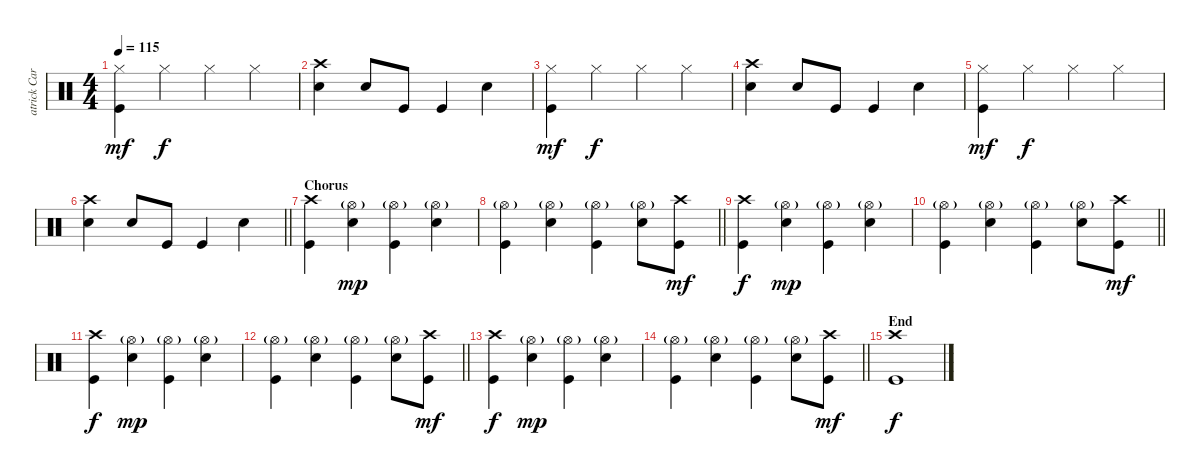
\track ("atrick Carney - Percussion" "atrick Car") {instrument percussion}
\staff {score}
\articulation defaults
\ts (4 4)
\tempo 115
\clef neutral
\ks c
("Hi-Hat (closed)" "Kick (hit)").4{dy mf} "Hi-Hat (closed)".4{dy f} "Hi-Hat (closed)".4 "Hi-Hat (closed)".4 |
("Crash high (hit)" "Electric Snare (hit)").4 "Electric Snare (hit)".8 "Kick (hit)".8 "Kick (hit)".4 "Electric Snare (hit)".4 |
("Hi-Hat (closed)" "Kick (hit)").4{dy mf} "Hi-Hat (closed)".4{dy f} "Hi-Hat (closed)".4 "Hi-Hat (closed)".4 |
("Crash high (hit)" "Electric Snare (hit)").4 "Electric Snare (hit)".8 "Kick (hit)".8 "Kick (hit)".4 "Electric Snare (hit)".4 |
("Hi-Hat (closed)" "Kick (hit)").4{dy mf} "Hi-Hat (closed)".4{dy f} "Hi-Hat (closed)".4 "Hi-Hat (closed)".4 |
\barLineRight lightlight
("Crash high (hit)" "Electric Snare (hit)").4 "Electric Snare (hit)".8 "Kick (hit)".8 "Kick (hit)".4 "Electric Snare (hit)".4 |
\section ("" "Chorus")
("Crash high (hit)" "Kick (hit)").4 ("Hi-Hat (open)"{g} "Electric Snare (hit)").4{dy mp} ("Hi-Hat (open)"{g} "Kick (hit)").4 ("Hi-Hat (open)"{g} "Electric Snare (hit)").4 |
\barLineRight lightlight
("Hi-Hat (open)"{g} "Kick (hit)").4 ("Hi-Hat (open)"{g} "Electric Snare (hit)").4 ("Hi-Hat (open)"{g} "Kick (hit)").4 ("Hi-Hat (open)"{g} "Electric Snare (hit)").8 ("Crash high (hit)" "Kick (hit)").8{dy mf} |
("Crash high (hit)" "Kick (hit)").4{dy f} ("Hi-Hat (open)"{g} "Electric Snare (hit)").4{dy mp} ("Hi-Hat (open)"{g} "Kick (hit)").4 ("Hi-Hat (open)"{g} "Electric Snare (hit)").4 |
\barLineRight lightlight
("Hi-Hat (open)"{g} "Kick (hit)").4 ("Hi-Hat (open)"{g} "Electric Snare (hit)").4 ("Hi-Hat (open)"{g} "Kick (hit)").4 ("Hi-Hat (open)"{g} "Electric Snare (hit)").8 ("Crash high (hit)" "Kick (hit)").8{dy mf} |
("Crash high (hit)" "Kick (hit)").4{dy f} ("Hi-Hat (open)"{g} "Electric Snare (hit)").4{dy mp} ("Hi-Hat (open)"{g} "Kick (hit)").4 ("Hi-Hat (open)"{g} "Electric Snare (hit)").4 |
\barLineRight lightlight
("Hi-Hat (open)"{g} "Kick (hit)").4 ("Hi-Hat (open)"{g} "Electric Snare (hit)").4 ("Hi-Hat (open)"{g} "Kick (hit)").4 ("Hi-Hat (open)"{g} "Electric Snare (hit)").8 ("Crash high (hit)" "Kick (hit)").8{dy mf} |
("Crash high (hit)" "Kick (hit)").4{dy f} ("Hi-Hat (open)"{g} "Electric Snare (hit)").4{dy mp} ("Hi-Hat (open)"{g} "Kick (hit)").4 ("Hi-Hat (open)"{g} "Electric Snare (hit)").4 |
\barLineRight lightlight
("Hi-Hat (open)"{g} "Kick (hit)").4 ("Hi-Hat (open)"{g} "Electric Snare (hit)").4 ("Hi-Hat (open)"{g} "Kick (hit)").4 ("Hi-Hat (open)"{g} "Electric Snare (hit)").8 ("Crash high (hit)" "Kick (hit)").8{dy mf} |
\section ("" "End")
("Crash high (hit)" "Kick (hit)").1{dy f}
